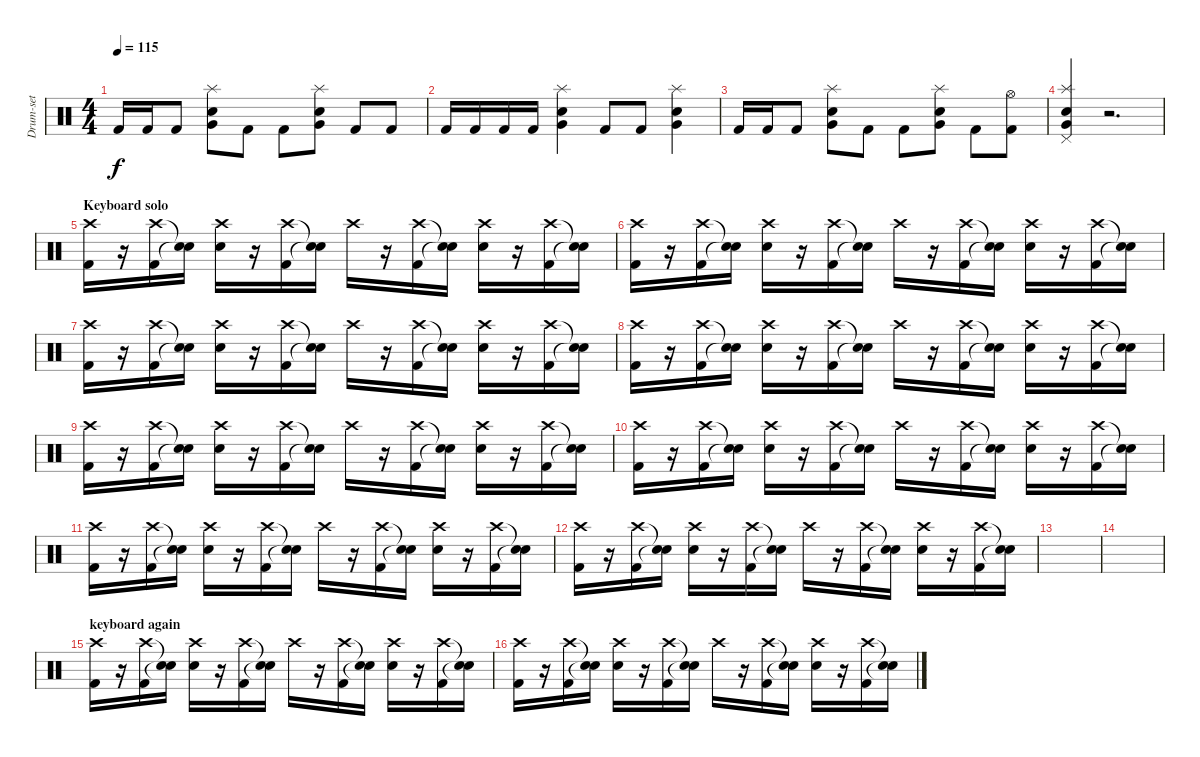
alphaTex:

\track ("Drum-set" "Drum-set") {instrument percussion}
\staff {score}
\articulation defaults
\ts (4 4)
\tempo 115
\clef neutral
\ks c "Kick (hit) 2".16{dy f} "Kick (hit) 2".16 "Kick (hit) 2".8
("Very Low Tom (hit)" "Snare (hit) 2" "Splash (hit)").8 "Kick (hit) 2".8 "Kick (hit) 2".8 ("Very Low Tom (hit)" "Snare (hit) 2" "Splash (hit)").8 "Kick (hit) 2".8 "Kick (hit) 2".8 |
"Kick (hit) 2".16 "Kick (hit) 2".16 "Kick (hit) 2".16 "Kick (hit) 2".16 ("Very Low Tom (hit)" "Snare (hit) 2" "Splash (hit)").4 "Kick (hit) 2".8 "Kick (hit) 2".8 ("Very Low Tom (hit)" "Snare (hit) 2" "Splash (hit)").4 |
"Kick (hit) 2".16 "Kick (hit) 2".16 "Kick (hit) 2".8 ("Very Low Tom (hit)" "Snare (hit) 2" "Splash (hit)").8 "Kick (hit) 2".8 "Kick (hit) 2".8 ("Very Low Tom (hit)" "Snare (hit) 2" "Splash (hit)").8 "Kick (hit) 2".8 ("Kick (hit) 2" "Hi-Hat (open)").8 |
("Very Low Tom (hit)" "Snare (hit) 2" "Splash (hit)" "Pedal Hi-Hat (hit)").4 r.2{d} |
\section ("" "Keyboard solo")
("Crash high (hit)" "Kick (hit) 2").16 r.16 ("Crash high (hit)" "Kick (hit) 2").16 ("Snare (hit)"{t} "Snare (hit)"{t}).16 ("Crash high (hit)" "Electric Snare (hit)").16 r.16 ("Crash high (hit)" "Kick (hit) 2").16 ("Snare (hit)"{t} "Snare (hit)"{t}).16 "Crash high (hit)".16 r.16 ("Crash high (hit)" "Kick (hit) 2").16 ("Snare (hit)"{t} "Snare (hit)"{t}).16 ("Crash high (hit)" "Electric Snare (hit)").16 r.16 ("Crash high (hit)" "Kick (hit) 2").16 ("Snare (hit)"{t} "Snare (hit)"{t}).16 |
("Crash high (hit)" "Kick (hit) 2").16 r.16 ("Crash high (hit)" "Kick (hit) 2").16 ("Snare (hit)"{t} "Snare (hit)"{t}).16 ("Crash high (hit)" "Electric Snare (hit)").16 r.16 ("Crash high (hit)" "Kick (hit) 2").16 ("Snare (hit)"{t} "Snare (hit)"{t}).16 "Crash high (hit)".16 r.16 ("Crash high (hit)" "Kick (hit) 2").16 ("Snare (hit)"{t} "Snare (hit)"{t}).16 ("Crash high (hit)" "Electric Snare (hit)").16 r.16 ("Crash high (hit)" "Kick (hit) 2").16 ("Snare (hit)"{t} "Snare (hit)"{t}).16 |
("Crash high (hit)" "Kick (hit) 2").16 r.16 ("Crash high (hit)" "Kick (hit) 2").16 ("Snare (hit)"{t} "Snare (hit)"{t}).16 ("Crash high (hit)" "Electric Snare (hit)").16 r.16 ("Crash high (hit)" "Kick (hit) 2").16 ("Snare (hit)"{t} "Snare (hit)"{t}).16 "Crash high (hit)".16 r.16 ("Crash high (hit)" "Kick (hit) 2").16 ("Snare (hit)"{t} "Snare (hit)"{t}).16 ("Crash high (hit)" "Electric Snare (hit)").16 r.16 ("Crash high (hit)" "Kick (hit) 2").16 ("Snare (hit)"{t} "Snare (hit)"{t}).16 |
("Crash high (hit)" "Kick (hit) 2").16 r.16 ("Crash high (hit)" "Kick (hit) 2").16 ("Snare (hit)"{t} "Snare (hit)"{t}).16 ("Crash high (hit)" "Electric Snare (hit)").16 r.16 ("Crash high (hit)" "Kick (hit) 2").16 ("Snare (hit)"{t} "Snare (hit)"{t}).16 "Crash high (hit)".16 r.16 ("Crash high (hit)" "Kick (hit) 2").16 ("Snare (hit)"{t} "Snare (hit)"{t}).16 ("Crash high (hit)" "Electric Snare (hit)").16 r.16 ("Crash high (hit)" "Kick (hit) 2").16 ("Snare (hit)"{t} "Snare (hit)"{t}).16 |
("Crash high (hit)" "Kick (hit) 2").16 r.16 ("Crash high (hit)" "Kick (hit) 2").16 ("Snare (hit)"{t} "Snare (hit)"{t}).16 ("Crash high (hit)" "Electric Snare (hit)").16 r.16 ("Crash high (hit)" "Kick (hit) 2").16 ("Snare (hit)"{t} "Snare (hit)"{t}).16 "Crash high (hit)".16 r.16 ("Crash high (hit)" "Kick (hit) 2").16 ("Snare (hit)"{t} "Snare (hit)"{t}).16 ("Crash high (hit)" "Electric Snare (hit)").16 r.16 ("Crash high (hit)" "Kick (hit) 2").16 ("Snare (hit)"{t} "Snare (hit)"{t}).16 |
("Crash high (hit)" "Kick (hit) 2").16 r.16 ("Crash high (hit)" "Kick (hit) 2").16 ("Snare (hit)"{t} "Snare (hit)"{t}).16 ("Crash high (hit)" "Electric Snare (hit)").16 r.16 ("Crash high (hit)" "Kick (hit) 2").16 ("Snare (hit)"{t} "Snare (hit)"{t}).16 "Crash high (hit)".16 r.16 ("Crash high (hit)" "Kick (hit) 2").16 ("Snare (hit)"{t} "Snare (hit)"{t}).16 ("Crash high (hit)" "Electric Snare (hit)").16 r.16 ("Crash high (hit)" "Kick (hit) 2").16 ("Snare (hit)"{t} "Snare (hit)"{t}).16 |
("Crash high (hit)" "Kick (hit) 2").16 r.16 ("Crash high (hit)" "Kick (hit) 2").16 ("Snare (hit)"{t} "Snare (hit)"{t}).16 ("Crash high (hit)" "Electric Snare (hit)").16 r.16 ("Crash high (hit)" "Kick (hit) 2").16 ("Snare (hit)"{t} "Snare (hit)"{t}).16 "Crash high (hit)".16 r.16 ("Crash high (hit)" "Kick (hit) 2").16 ("Snare (hit)"{t} "Snare (hit)"{t}).16 ("Crash high (hit)" "Electric Snare (hit)").16 r.16 ("Crash high (hit)" "Kick (hit) 2").16 ("Snare (hit)"{t} "Snare (hit)"{t}).16 |
("Crash high (hit)" "Kick (hit) 2").16 r.16 ("Crash high (hit)" "Kick (hit) 2").16 ("Snare (hit)"{t} "Snare (hit)"{t}).16 ("Crash high (hit)" "Electric Snare (hit)").16 r.16 ("Crash high (hit)" "Kick (hit) 2").16 ("Snare (hit)"{t} "Snare (hit)"{t}).16 "Crash high (hit)".16 r.16 ("Crash high (hit)" "Kick (hit) 2").16 ("Snare (hit)"{t} "Snare (hit)"{t}).16 ("Crash high (hit)" "Electric Snare (hit)").16 r.16 ("Crash high (hit)" "Kick (hit) 2").16 ("Snare (hit)"{t} "Snare (hit)"{t}).16 |
|
|
\section ("" "keyboard again")
("Crash high (hit)" "Kick (hit) 2").16 r.16 ("Crash high (hit)" "Kick (hit) 2").16 ("Snare (hit)"{t} "Snare (hit)"{t}).16 ("Crash high (hit)" "Electric Snare (hit)").16 r.16 ("Crash high (hit)" "Kick (hit) 2").16 ("Snare (hit)"{t} "Snare (hit)"{t}).16 "Crash high (hit)".16 r.16 ("Crash high (hit)" "Kick (hit) 2").16 ("Snare (hit)"{t} "Snare (hit)"{t}).16 ("Crash high (hit)" "Electric Snare (hit)").16 r.16 ("Crash high (hit)" "Kick (hit) 2").16 ("Snare (hit)"{t} "Snare (hit)"{t}).16 |
("Crash high (hit)" "Kick (hit) 2").16 r.16 ("Crash high (hit)" "Kick (hit) 2").16 ("Snare (hit)"{t} "Snare (hit)"{t}).16 ("Crash high (hit)" "Electric Snare (hit)").16 r.16 ("Crash high (hit)" "Kick (hit) 2").16 ("Snare (hit)"{t} "Snare (hit)"{t}).16 "Crash high (hit)".16 r.16 ("Crash high (hit)" "Kick (hit) 2").16 ("Snare (hit)"{t} "Snare (hit)"{t}).16 ("Crash high (hit)" "Electric Snare (hit)").16 r.16 ("Crash high (hit)" "Kick (hit) 2").16 ("Snare (hit)"{t} "Snare (hit)"{t}).16
